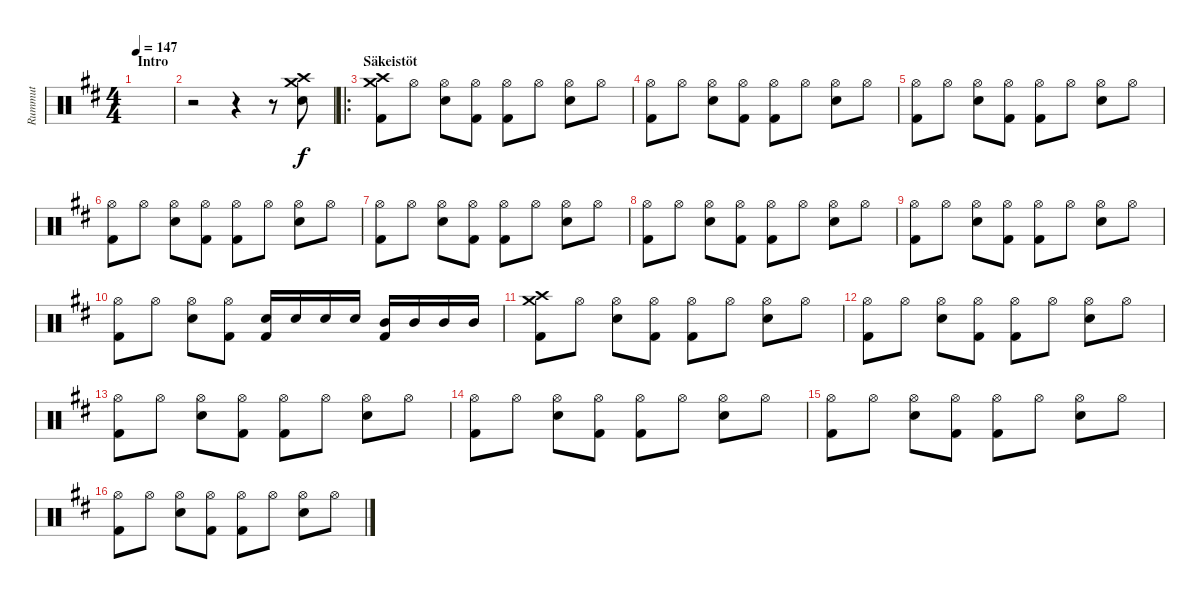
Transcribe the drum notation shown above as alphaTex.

\track ("Rummut" "Rummut") {instrument percussion}
\staff {score}
\articulation defaults
\ts (4 4)
\section ("" "Intro")
\tempo 147
\clef neutral
\ks d
|
r.2 r.4 r.8 ("Crash high (hit)" "Crash medium (hit)" "Electric Snare (hit)").8 |
\ro
\section ("" "Säkeistöt")
("Crash high (hit)" "Crash medium (hit)" "Kick (hit) 2").8 "Hi-Hat (open)".8 ("Hi-Hat (open)" "Electric Snare (hit)").8 ("Hi-Hat (open)" "Kick (hit) 2").8 ("Hi-Hat (open)" "Kick (hit) 2").8 "Hi-Hat (open)".8 ("Hi-Hat (open)" "Electric Snare (hit)").8 "Hi-Hat (open)".8 |
("Hi-Hat (open)" "Kick (hit) 2").8 "Hi-Hat (open)".8 ("Hi-Hat (open)" "Electric Snare (hit)").8 ("Hi-Hat (open)" "Kick (hit) 2").8 ("Hi-Hat (open)" "Kick (hit) 2").8 "Hi-Hat (open)".8 ("Hi-Hat (open)" "Electric Snare (hit)").8 "Hi-Hat (open)".8 |
("Hi-Hat (open)" "Kick (hit) 2").8 "Hi-Hat (open)".8 ("Hi-Hat (open)" "Electric Snare (hit)").8 ("Hi-Hat (open)" "Kick (hit) 2").8 ("Hi-Hat (open)" "Kick (hit) 2").8 "Hi-Hat (open)".8 ("Hi-Hat (open)" "Electric Snare (hit)").8 "Hi-Hat (open)".8 |
("Hi-Hat (open)" "Kick (hit) 2").8 "Hi-Hat (open)".8 ("Hi-Hat (open)" "Electric Snare (hit)").8 ("Hi-Hat (open)" "Kick (hit) 2").8 ("Hi-Hat (open)" "Kick (hit) 2").8 "Hi-Hat (open)".8 ("Hi-Hat (open)" "Electric Snare (hit)").8 "Hi-Hat (open)".8 |
("Hi-Hat (open)" "Kick (hit) 2").8 "Hi-Hat (open)".8 ("Hi-Hat (open)" "Electric Snare (hit)").8 ("Hi-Hat (open)" "Kick (hit) 2").8 ("Hi-Hat (open)" "Kick (hit) 2").8 "Hi-Hat (open)".8 ("Hi-Hat (open)" "Electric Snare (hit)").8 "Hi-Hat (open)".8 |
("Hi-Hat (open)" "Kick (hit) 2").8 "Hi-Hat (open)".8 ("Hi-Hat (open)" "Electric Snare (hit)").8 ("Hi-Hat (open)" "Kick (hit) 2").8 ("Hi-Hat (open)" "Kick (hit) 2").8 "Hi-Hat (open)".8 ("Hi-Hat (open)" "Electric Snare (hit)").8 "Hi-Hat (open)".8 |
("Hi-Hat (open)" "Kick (hit) 2").8 "Hi-Hat (open)".8 ("Hi-Hat (open)" "Electric Snare (hit)").8 ("Hi-Hat (open)" "Kick (hit) 2").8 ("Hi-Hat (open)" "Kick (hit) 2").8 "Hi-Hat (open)".8 ("Hi-Hat (open)" "Electric Snare (hit)").8 "Hi-Hat (open)".8 |
("Hi-Hat (open)" "Kick (hit) 2").8 "Hi-Hat (open)".8 ("Hi-Hat (open)" "Electric Snare (hit)").8 ("Hi-Hat (open)" "Kick (hit) 2").8 ("Snare (hit) 2" "Kick (hit) 2").16 "Snare (hit) 2".16 "Snare (hit) 2".16 "Snare (hit) 2".16 ("Mid Tom (hit)" "Kick (hit) 2").16 "Mid Tom (hit)".16 "Mid Tom (hit)".16 "Mid Tom (hit)".16 |
("Crash high (hit)" "Crash medium (hit)" "Kick (hit) 2").8 "Hi-Hat (open)".8 ("Hi-Hat (open)" "Electric Snare (hit)").8 ("Hi-Hat (open)" "Kick (hit) 2").8 ("Hi-Hat (open)" "Kick (hit) 2").8 "Hi-Hat (open)".8 ("Hi-Hat (open)" "Electric Snare (hit)").8 "Hi-Hat (open)".8 |
("Hi-Hat (open)" "Kick (hit) 2").8 "Hi-Hat (open)".8 ("Hi-Hat (open)" "Electric Snare (hit)").8 ("Hi-Hat (open)" "Kick (hit) 2").8 ("Hi-Hat (open)" "Kick (hit) 2").8 "Hi-Hat (open)".8 ("Hi-Hat (open)" "Electric Snare (hit)").8 "Hi-Hat (open)".8 |
("Hi-Hat (open)" "Kick (hit) 2").8 "Hi-Hat (open)".8 ("Hi-Hat (open)" "Electric Snare (hit)").8 ("Hi-Hat (open)" "Kick (hit) 2").8 ("Hi-Hat (open)" "Kick (hit) 2").8 "Hi-Hat (open)".8 ("Hi-Hat (open)" "Electric Snare (hit)").8 "Hi-Hat (open)".8 |
("Hi-Hat (open)" "Kick (hit) 2").8 "Hi-Hat (open)".8 ("Hi-Hat (open)" "Electric Snare (hit)").8 ("Hi-Hat (open)" "Kick (hit) 2").8 ("Hi-Hat (open)" "Kick (hit) 2").8 "Hi-Hat (open)".8 ("Hi-Hat (open)" "Electric Snare (hit)").8 "Hi-Hat (open)".8 |
("Hi-Hat (open)" "Kick (hit) 2").8 "Hi-Hat (open)".8 ("Hi-Hat (open)" "Electric Snare (hit)").8 ("Hi-Hat (open)" "Kick (hit) 2").8 ("Hi-Hat (open)" "Kick (hit) 2").8 "Hi-Hat (open)".8 ("Hi-Hat (open)" "Electric Snare (hit)").8 "Hi-Hat (open)".8 |
("Hi-Hat (open)" "Kick (hit) 2").8 "Hi-Hat (open)".8 ("Hi-Hat (open)" "Electric Snare (hit)").8 ("Hi-Hat (open)" "Kick (hit) 2").8 ("Hi-Hat (open)" "Kick (hit) 2").8 "Hi-Hat (open)".8 ("Hi-Hat (open)" "Electric Snare (hit)").8 "Hi-Hat (open)".8
